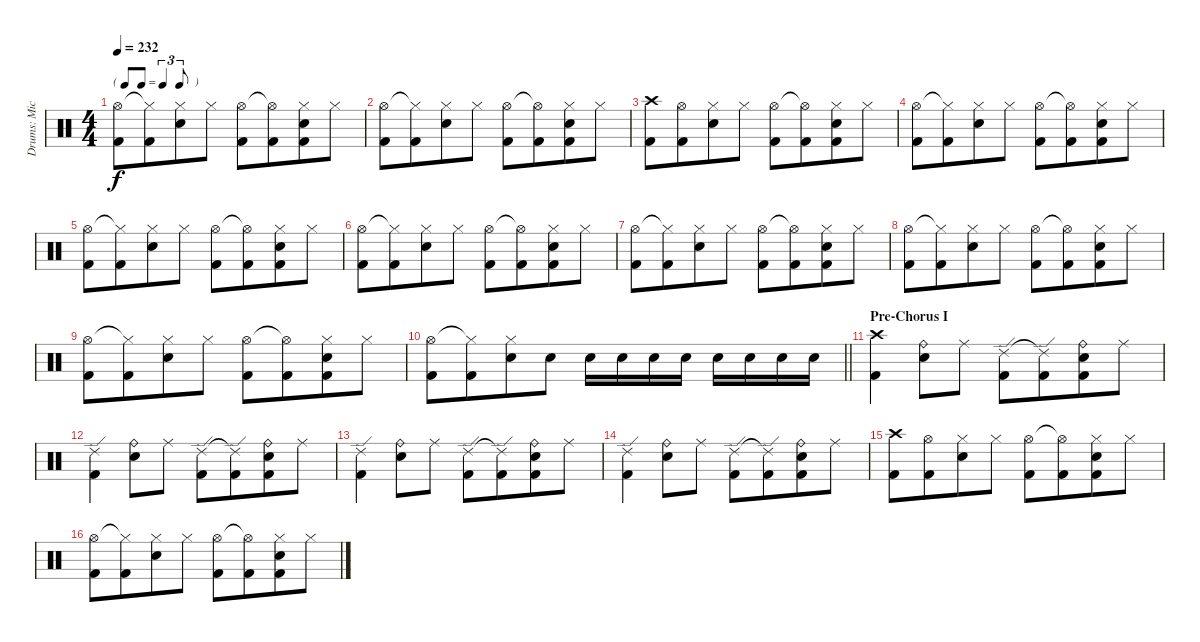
\track ("Drums: Mick" "Drums: Mic") {instrument percussion}
\staff {score}
\articulation defaults
\ts (4 4)
\tf triplet8th
\tempo 232
\clef neutral
\ks c
("Hi-Hat (open)" "Kick (hit) 2").8{dy f} ("Hi-Hat (closed)"{t} "Kick (hit) 2").8{beam merge} ("Hi-Hat (closed)" "Snare (hit) 2").8 "Hi-Hat (closed)".8 ("Hi-Hat (open)" "Kick (hit) 2").8 ("Hi-Hat (open)"{t} "Kick (hit) 2").8{beam merge} ("Hi-Hat (closed)" "Snare (hit) 2" "Kick (hit) 2").8 "Hi-Hat (closed)".8 |
("Hi-Hat (open)" "Kick (hit) 2").8 ("Hi-Hat (closed)"{t} "Kick (hit) 2").8{beam merge} ("Hi-Hat (closed)" "Snare (hit) 2").8 "Hi-Hat (closed)".8 ("Hi-Hat (open)" "Kick (hit) 2").8 ("Hi-Hat (open)"{t} "Kick (hit) 2").8{beam merge} ("Hi-Hat (closed)" "Snare (hit) 2" "Kick (hit) 2").8 "Hi-Hat (closed)".8 |
("Crash high (hit)" "Kick (hit) 2").8 ("Hi-Hat (open)" "Kick (hit) 2").8{beam merge} ("Hi-Hat (closed)" "Snare (hit) 2").8 "Hi-Hat (closed)".8 ("Hi-Hat (open)" "Kick (hit) 2").8 ("Hi-Hat (open)"{t} "Kick (hit) 2").8{beam merge} ("Hi-Hat (closed)" "Snare (hit) 2" "Kick (hit) 2").8 "Hi-Hat (closed)".8 |
("Hi-Hat (open)" "Kick (hit) 2").8 ("Hi-Hat (closed)"{t} "Kick (hit) 2").8{beam merge} ("Hi-Hat (closed)" "Snare (hit) 2").8 "Hi-Hat (closed)".8 ("Hi-Hat (open)" "Kick (hit) 2").8 ("Hi-Hat (open)"{t} "Kick (hit) 2").8{beam merge} ("Hi-Hat (closed)" "Snare (hit) 2" "Kick (hit) 2").8 "Hi-Hat (closed)".8 |
("Hi-Hat (open)" "Kick (hit) 2").8 ("Hi-Hat (closed)"{t} "Kick (hit) 2").8{beam merge} ("Hi-Hat (closed)" "Snare (hit) 2").8 "Hi-Hat (closed)".8 ("Hi-Hat (open)" "Kick (hit) 2").8 ("Hi-Hat (open)"{t} "Kick (hit) 2").8{beam merge} ("Hi-Hat (closed)" "Snare (hit) 2" "Kick (hit) 2").8 "Hi-Hat (closed)".8 |
("Hi-Hat (open)" "Kick (hit) 2").8 ("Hi-Hat (closed)"{t} "Kick (hit) 2").8{beam merge} ("Hi-Hat (closed)" "Snare (hit) 2").8 "Hi-Hat (closed)".8 ("Hi-Hat (open)" "Kick (hit) 2").8 ("Hi-Hat (open)"{t} "Kick (hit) 2").8{beam merge} ("Hi-Hat (closed)" "Snare (hit) 2" "Kick (hit) 2").8 "Hi-Hat (closed)".8 |
("Hi-Hat (open)" "Kick (hit) 2").8 ("Hi-Hat (closed)"{t} "Kick (hit) 2").8{beam merge} ("Hi-Hat (closed)" "Snare (hit) 2").8 "Hi-Hat (closed)".8 ("Hi-Hat (open)" "Kick (hit) 2").8 ("Hi-Hat (open)"{t} "Kick (hit) 2").8{beam merge} ("Hi-Hat (closed)" "Snare (hit) 2" "Kick (hit) 2").8 "Hi-Hat (closed)".8 |
("Hi-Hat (open)" "Kick (hit) 2").8 ("Hi-Hat (closed)"{t} "Kick (hit) 2").8{beam merge} ("Hi-Hat (closed)" "Snare (hit) 2").8 "Hi-Hat (closed)".8 ("Hi-Hat (open)" "Kick (hit) 2").8 ("Hi-Hat (open)"{t} "Kick (hit) 2").8{beam merge} ("Hi-Hat (closed)" "Snare (hit) 2" "Kick (hit) 2").8 "Hi-Hat (closed)".8 |
("Hi-Hat (open)" "Kick (hit) 2").8 ("Hi-Hat (closed)"{t} "Kick (hit) 2").8{beam merge} ("Hi-Hat (closed)" "Snare (hit) 2").8 "Hi-Hat (closed)".8 ("Hi-Hat (open)" "Kick (hit) 2").8 ("Hi-Hat (open)"{t} "Kick (hit) 2").8{beam merge} ("Hi-Hat (closed)" "Snare (hit) 2" "Kick (hit) 2").8 "Hi-Hat (closed)".8 |
\barLineRight lightlight
("Hi-Hat (open)" "Kick (hit) 2").8 ("Hi-Hat (closed)"{t} "Kick (hit) 2").8{beam merge} ("Hi-Hat (closed)" "Snare (hit) 2").8 "Snare (hit) 2".8 "Snare (hit) 2".16 "Snare (hit) 2".16 "Snare (hit) 2".16 "Snare (hit) 2".16 "Snare (hit) 2".16 "Snare (hit) 2".16 "Snare (hit) 2".16 "Snare (hit) 2".16 |
\section ("" "Pre-Chorus I")
("Crash high (hit)" "Kick (hit) 2").4{beam merge} ("Ride (bell)" "Snare (hit) 2").8 "Ride (middle)".8 ("Ride (edge) 2" "Kick (hit) 2").8 ("Ride (edge) 2"{t} "Kick (hit) 2").8{beam merge} ("Ride (bell)" "Snare (hit) 2" "Kick (hit) 2").8 "Ride (middle)".8 |
("Ride (edge) 2" "Kick (hit) 2").4{beam merge} ("Ride (bell)" "Snare (hit) 2").8 "Ride (middle)".8 ("Ride (edge) 2" "Kick (hit) 2").8 ("Ride (edge) 2"{t} "Kick (hit) 2").8{beam merge} ("Ride (bell)" "Snare (hit) 2" "Kick (hit) 2").8 "Ride (middle)".8 |
("Ride (edge) 2" "Kick (hit) 2").4{beam merge} ("Ride (bell)" "Snare (hit) 2").8 "Ride (middle)".8 ("Ride (edge) 2" "Kick (hit) 2").8 ("Ride (edge) 2"{t} "Kick (hit) 2").8{beam merge} ("Ride (bell)" "Snare (hit) 2" "Kick (hit) 2").8 "Ride (middle)".8 |
("Ride (edge) 2" "Kick (hit) 2").4{beam merge} ("Ride (bell)" "Snare (hit) 2").8 "Ride (middle)".8 ("Ride (edge) 2" "Kick (hit) 2").8 ("Ride (edge) 2"{t} "Kick (hit) 2").8{beam merge} ("Ride (bell)" "Snare (hit) 2" "Kick (hit) 2").8 "Ride (middle)".8 |
("Crash high (hit)" "Kick (hit) 2").8 ("Hi-Hat (open)" "Kick (hit) 2").8{beam merge} ("Hi-Hat (closed)" "Snare (hit) 2").8 "Hi-Hat (closed)".8 ("Hi-Hat (open)" "Kick (hit) 2").8 ("Hi-Hat (open)"{t} "Kick (hit) 2").8{beam merge} ("Hi-Hat (closed)" "Snare (hit) 2" "Kick (hit) 2").8 "Hi-Hat (closed)".8 |
("Hi-Hat (open)" "Kick (hit) 2").8 ("Hi-Hat (closed)"{t} "Kick (hit) 2").8{beam merge} ("Hi-Hat (closed)" "Snare (hit) 2").8 "Hi-Hat (closed)".8 ("Hi-Hat (open)" "Kick (hit) 2").8 ("Hi-Hat (open)"{t} "Kick (hit) 2").8{beam merge} ("Hi-Hat (closed)" "Snare (hit) 2" "Kick (hit) 2").8 "Hi-Hat (closed)".8
